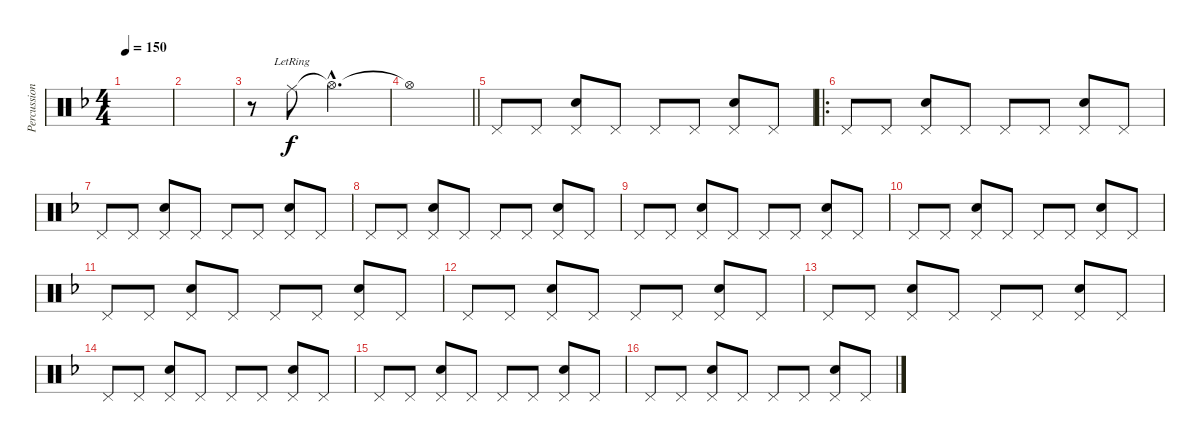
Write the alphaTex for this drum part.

\track ("Percussions" "Percussion") {instrument percussion}
\staff {score}
\articulation defaults
\ts (4 4)
\tempo 150
\clef neutral
\ks f
|
|
r.8 "Ride (middle)"{lr}.8 "Hi-Hat (open)"{hac t}.2{d dy f} |
\barLineRight lightlight "Hi-Hat (open)"{t}.1
|
"Pedal Hi-Hat (hit)".8 "Pedal Hi-Hat (hit)".8 ("Pedal Hi-Hat (hit)" "Snare (hit) 2").8 "Pedal Hi-Hat (hit)".8 "Pedal Hi-Hat (hit)".8 "Pedal Hi-Hat (hit)".8 ("Pedal Hi-Hat (hit)" "Snare (hit) 2").8 "Pedal Hi-Hat (hit)".8 |
\ro "Pedal Hi-Hat (hit)".8 "Pedal Hi-Hat (hit)".8
("Pedal Hi-Hat (hit)" "Snare (hit) 2").8 "Pedal Hi-Hat (hit)".8 "Pedal Hi-Hat (hit)".8 "Pedal Hi-Hat (hit)".8 ("Pedal Hi-Hat (hit)" "Snare (hit) 2").8 "Pedal Hi-Hat (hit)".8 |
"Pedal Hi-Hat (hit)".8 "Pedal Hi-Hat (hit)".8 ("Pedal Hi-Hat (hit)" "Snare (hit) 2").8 "Pedal Hi-Hat (hit)".8 "Pedal Hi-Hat (hit)".8 "Pedal Hi-Hat (hit)".8 ("Pedal Hi-Hat (hit)" "Snare (hit) 2").8 "Pedal Hi-Hat (hit)".8 |
"Pedal Hi-Hat (hit)".8 "Pedal Hi-Hat (hit)".8 ("Pedal Hi-Hat (hit)" "Snare (hit) 2").8 "Pedal Hi-Hat (hit)".8 "Pedal Hi-Hat (hit)".8 "Pedal Hi-Hat (hit)".8 ("Pedal Hi-Hat (hit)" "Snare (hit) 2").8 "Pedal Hi-Hat (hit)".8 |
"Pedal Hi-Hat (hit)".8 "Pedal Hi-Hat (hit)".8 ("Pedal Hi-Hat (hit)" "Snare (hit) 2").8 "Pedal Hi-Hat (hit)".8 "Pedal Hi-Hat (hit)".8 "Pedal Hi-Hat (hit)".8 ("Pedal Hi-Hat (hit)" "Snare (hit) 2").8 "Pedal Hi-Hat (hit)".8 |
"Pedal Hi-Hat (hit)".8 "Pedal Hi-Hat (hit)".8 ("Pedal Hi-Hat (hit)" "Snare (hit) 2").8 "Pedal Hi-Hat (hit)".8 "Pedal Hi-Hat (hit)".8 "Pedal Hi-Hat (hit)".8 ("Pedal Hi-Hat (hit)" "Snare (hit) 2").8 "Pedal Hi-Hat (hit)".8 |
"Pedal Hi-Hat (hit)".8 "Pedal Hi-Hat (hit)".8 ("Pedal Hi-Hat (hit)" "Snare (hit) 2").8 "Pedal Hi-Hat (hit)".8 "Pedal Hi-Hat (hit)".8 "Pedal Hi-Hat (hit)".8 ("Pedal Hi-Hat (hit)" "Snare (hit) 2").8 "Pedal Hi-Hat (hit)".8 |
"Pedal Hi-Hat (hit)".8 "Pedal Hi-Hat (hit)".8 ("Pedal Hi-Hat (hit)" "Snare (hit) 2").8 "Pedal Hi-Hat (hit)".8 "Pedal Hi-Hat (hit)".8 "Pedal Hi-Hat (hit)".8 ("Pedal Hi-Hat (hit)" "Snare (hit) 2").8 "Pedal Hi-Hat (hit)".8 |
"Pedal Hi-Hat (hit)".8 "Pedal Hi-Hat (hit)".8 ("Pedal Hi-Hat (hit)" "Snare (hit) 2").8 "Pedal Hi-Hat (hit)".8 "Pedal Hi-Hat (hit)".8 "Pedal Hi-Hat (hit)".8 ("Pedal Hi-Hat (hit)" "Snare (hit) 2").8 "Pedal Hi-Hat (hit)".8 |
"Pedal Hi-Hat (hit)".8 "Pedal Hi-Hat (hit)".8 ("Pedal Hi-Hat (hit)" "Snare (hit) 2").8 "Pedal Hi-Hat (hit)".8 "Pedal Hi-Hat (hit)".8 "Pedal Hi-Hat (hit)".8 ("Pedal Hi-Hat (hit)" "Snare (hit) 2").8 "Pedal Hi-Hat (hit)".8 |
"Pedal Hi-Hat (hit)".8 "Pedal Hi-Hat (hit)".8 ("Pedal Hi-Hat (hit)" "Snare (hit) 2").8 "Pedal Hi-Hat (hit)".8 "Pedal Hi-Hat (hit)".8 "Pedal Hi-Hat (hit)".8 ("Pedal Hi-Hat (hit)" "Snare (hit) 2").8 "Pedal Hi-Hat (hit)".8 |
"Pedal Hi-Hat (hit)".8 "Pedal Hi-Hat (hit)".8 ("Pedal Hi-Hat (hit)" "Snare (hit) 2").8 "Pedal Hi-Hat (hit)".8 "Pedal Hi-Hat (hit)".8 "Pedal Hi-Hat (hit)".8 ("Pedal Hi-Hat (hit)" "Snare (hit) 2").8 "Pedal Hi-Hat (hit)".8
